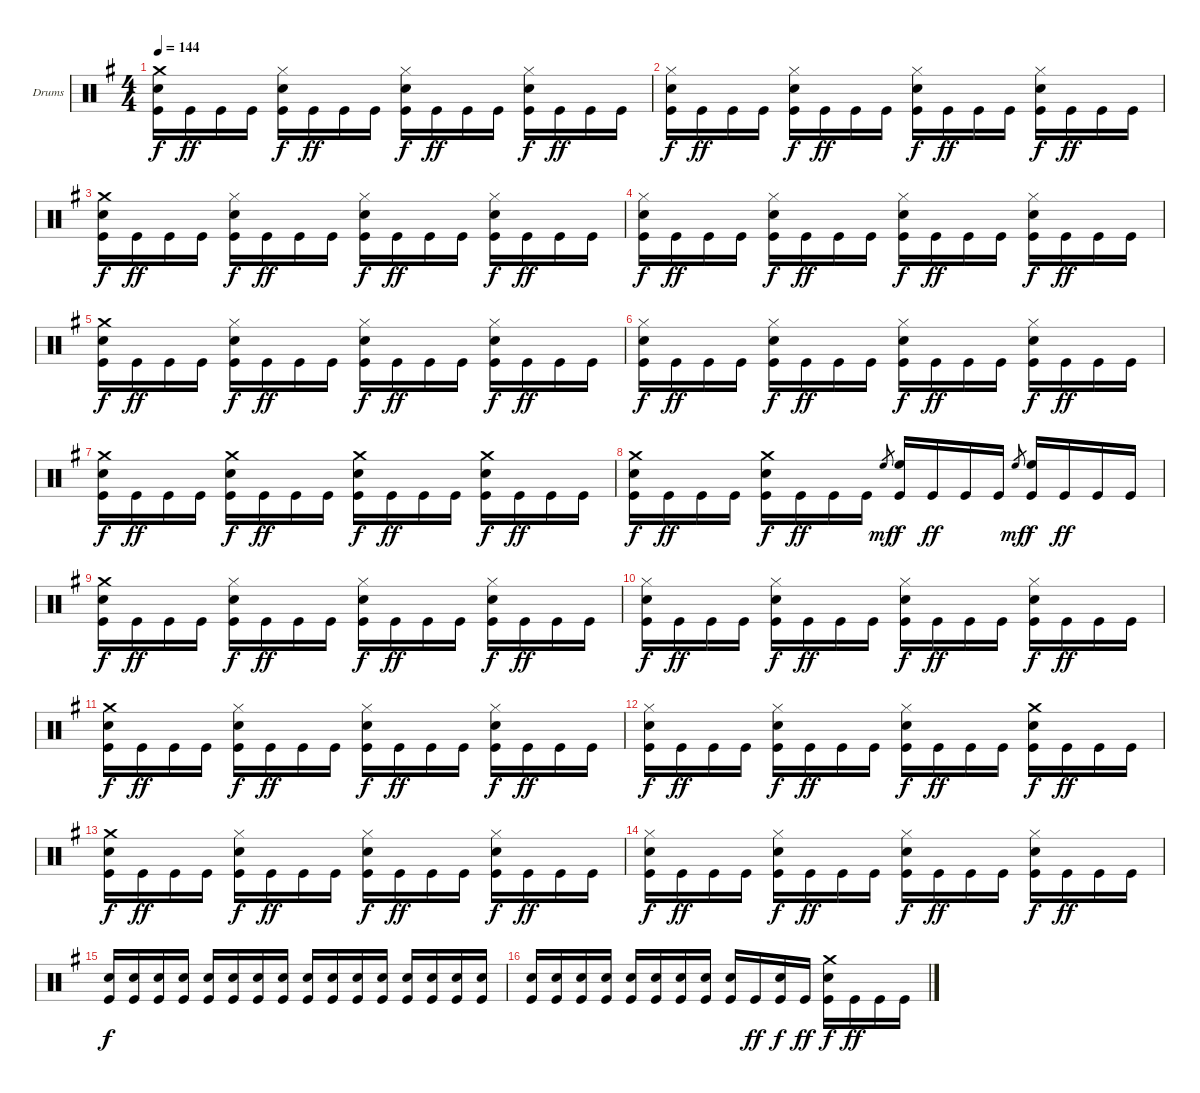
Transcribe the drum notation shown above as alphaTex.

\bracketExtendMode groupsimilarinstruments
\firstSystemTrackNameOrientation horizontal
\otherSystemsTrackNameOrientation horizontal
\track ("Drumkit" "Drums") {instrument percussion}
\staff {score}
\articulation defaults
\ts (4 4)
\tempo 144
\clef neutral
\ks g
("Crash medium (hit)" "Snare (hit) 2" "Kick (hit)").16{dy f} "Kick (hit)".16{dy ff} "Kick (hit)".16 "Kick (hit)".16 ("Hi-Hat (closed)" "Snare (hit) 2" "Kick (hit)").16{dy f} "Kick (hit)".16{dy ff} "Kick (hit)".16 "Kick (hit)".16 ("Hi-Hat (closed)" "Snare (hit) 2" "Kick (hit)").16{dy f} "Kick (hit)".16{dy ff} "Kick (hit)".16 "Kick (hit)".16 ("Hi-Hat (closed)" "Snare (hit) 2" "Kick (hit)").16{dy f} "Kick (hit)".16{dy ff} "Kick (hit)".16 "Kick (hit)".16 |
("Hi-Hat (closed)" "Snare (hit) 2" "Kick (hit)").16{dy f} "Kick (hit)".16{dy ff} "Kick (hit)".16 "Kick (hit)".16 ("Hi-Hat (closed)" "Snare (hit) 2" "Kick (hit)").16{dy f} "Kick (hit)".16{dy ff} "Kick (hit)".16 "Kick (hit)".16 ("Hi-Hat (closed)" "Snare (hit) 2" "Kick (hit)").16{dy f} "Kick (hit)".16{dy ff} "Kick (hit)".16 "Kick (hit)".16 ("Hi-Hat (closed)" "Snare (hit) 2" "Kick (hit)").16{dy f} "Kick (hit)".16{dy ff} "Kick (hit)".16 "Kick (hit)".16 |
("Crash medium (hit)" "Snare (hit) 2" "Kick (hit)").16{dy f} "Kick (hit)".16{dy ff} "Kick (hit)".16 "Kick (hit)".16 ("Hi-Hat (closed)" "Snare (hit) 2" "Kick (hit)").16{dy f} "Kick (hit)".16{dy ff} "Kick (hit)".16 "Kick (hit)".16 ("Hi-Hat (closed)" "Snare (hit) 2" "Kick (hit)").16{dy f} "Kick (hit)".16{dy ff} "Kick (hit)".16 "Kick (hit)".16 ("Hi-Hat (closed)" "Snare (hit) 2" "Kick (hit)").16{dy f} "Kick (hit)".16{dy ff} "Kick (hit)".16 "Kick (hit)".16 |
("Hi-Hat (closed)" "Snare (hit) 2" "Kick (hit)").16{dy f} "Kick (hit)".16{dy ff} "Kick (hit)".16 "Kick (hit)".16 ("Hi-Hat (closed)" "Snare (hit) 2" "Kick (hit)").16{dy f} "Kick (hit)".16{dy ff} "Kick (hit)".16 "Kick (hit)".16 ("Hi-Hat (closed)" "Snare (hit) 2" "Kick (hit)").16{dy f} "Kick (hit)".16{dy ff} "Kick (hit)".16 "Kick (hit)".16 ("Hi-Hat (closed)" "Snare (hit) 2" "Kick (hit)").16{dy f} "Kick (hit)".16{dy ff} "Kick (hit)".16 "Kick (hit)".16 |
("Crash medium (hit)" "Snare (hit) 2" "Kick (hit)").16{dy f} "Kick (hit)".16{dy ff} "Kick (hit)".16 "Kick (hit)".16 ("Hi-Hat (closed)" "Snare (hit) 2" "Kick (hit)").16{dy f} "Kick (hit)".16{dy ff} "Kick (hit)".16 "Kick (hit)".16 ("Hi-Hat (closed)" "Snare (hit) 2" "Kick (hit)").16{dy f} "Kick (hit)".16{dy ff} "Kick (hit)".16 "Kick (hit)".16 ("Hi-Hat (closed)" "Snare (hit) 2" "Kick (hit)").16{dy f} "Kick (hit)".16{dy ff} "Kick (hit)".16 "Kick (hit)".16 |
("Hi-Hat (closed)" "Snare (hit) 2" "Kick (hit)").16{dy f} "Kick (hit)".16{dy ff} "Kick (hit)".16 "Kick (hit)".16 ("Hi-Hat (closed)" "Snare (hit) 2" "Kick (hit)").16{dy f} "Kick (hit)".16{dy ff} "Kick (hit)".16 "Kick (hit)".16 ("Hi-Hat (closed)" "Snare (hit) 2" "Kick (hit)").16{dy f} "Kick (hit)".16{dy ff} "Kick (hit)".16 "Kick (hit)".16 ("Hi-Hat (closed)" "Snare (hit) 2" "Kick (hit)").16{dy f} "Kick (hit)".16{dy ff} "Kick (hit)".16 "Kick (hit)".16 |
("Crash medium (hit)" "Snare (hit) 2" "Kick (hit)").16{dy f} "Kick (hit)".16{dy ff} "Kick (hit)".16 "Kick (hit)".16 ("Crash medium (hit)" "Snare (hit) 2" "Kick (hit)").16{dy f} "Kick (hit)".16{dy ff} "Kick (hit)".16 "Kick (hit)".16 ("Crash medium (hit)" "Snare (hit) 2" "Kick (hit)").16{dy f} "Kick (hit)".16{dy ff} "Kick (hit)".16 "Kick (hit)".16 ("Crash medium (hit)" "Snare (hit) 2" "Kick (hit)").16{dy f} "Kick (hit)".16{dy ff} "Kick (hit)".16 "Kick (hit)".16 |
("Crash medium (hit)" "Snare (hit) 2" "Kick (hit)").16{dy f} "Kick (hit)".16{dy ff} "Kick (hit)".16 "Kick (hit)".16 ("Crash medium (hit)" "Snare (hit) 2" "Kick (hit)").16{dy f} "Kick (hit)".16{dy ff} "Kick (hit)".16 "Kick (hit)".16 "High Floor Tom (hit)".8{gr dy mf} ("High Floor Tom (hit)" "Kick (hit)").16{dy f} "Kick (hit)".16{dy ff} "Kick (hit)".16 "Kick (hit)".16 "High Floor Tom (hit)".8{gr dy mf} ("High Floor Tom (hit)" "Kick (hit)").16{dy f} "Kick (hit)".16{dy ff} "Kick (hit)".16 "Kick (hit)".16 |
("Crash medium (hit)" "Snare (hit) 2" "Kick (hit)").16{dy f} "Kick (hit)".16{dy ff} "Kick (hit)".16 "Kick (hit)".16 ("Hi-Hat (closed)" "Snare (hit) 2" "Kick (hit)").16{dy f} "Kick (hit)".16{dy ff} "Kick (hit)".16 "Kick (hit)".16 ("Hi-Hat (closed)" "Snare (hit) 2" "Kick (hit)").16{dy f} "Kick (hit)".16{dy ff} "Kick (hit)".16 "Kick (hit)".16 ("Hi-Hat (closed)" "Snare (hit) 2" "Kick (hit)").16{dy f} "Kick (hit)".16{dy ff} "Kick (hit)".16 "Kick (hit)".16 |
("Hi-Hat (closed)" "Snare (hit) 2" "Kick (hit)").16{dy f} "Kick (hit)".16{dy ff} "Kick (hit)".16 "Kick (hit)".16 ("Hi-Hat (closed)" "Snare (hit) 2" "Kick (hit)").16{dy f} "Kick (hit)".16{dy ff} "Kick (hit)".16 "Kick (hit)".16 ("Hi-Hat (closed)" "Snare (hit) 2" "Kick (hit)").16{dy f} "Kick (hit)".16{dy ff} "Kick (hit)".16 "Kick (hit)".16 ("Hi-Hat (closed)" "Snare (hit) 2" "Kick (hit)").16{dy f} "Kick (hit)".16{dy ff} "Kick (hit)".16 "Kick (hit)".16 |
("Crash medium (hit)" "Snare (hit) 2" "Kick (hit)").16{dy f} "Kick (hit)".16{dy ff} "Kick (hit)".16 "Kick (hit)".16 ("Hi-Hat (closed)" "Snare (hit) 2" "Kick (hit)").16{dy f} "Kick (hit)".16{dy ff} "Kick (hit)".16 "Kick (hit)".16 ("Hi-Hat (closed)" "Snare (hit) 2" "Kick (hit)").16{dy f} "Kick (hit)".16{dy ff} "Kick (hit)".16 "Kick (hit)".16 ("Hi-Hat (closed)" "Snare (hit) 2" "Kick (hit)").16{dy f} "Kick (hit)".16{dy ff} "Kick (hit)".16 "Kick (hit)".16 |
("Hi-Hat (closed)" "Snare (hit) 2" "Kick (hit)").16{dy f} "Kick (hit)".16{dy ff} "Kick (hit)".16 "Kick (hit)".16 ("Hi-Hat (closed)" "Snare (hit) 2" "Kick (hit)").16{dy f} "Kick (hit)".16{dy ff} "Kick (hit)".16 "Kick (hit)".16 ("Hi-Hat (closed)" "Snare (hit) 2" "Kick (hit)").16{dy f} "Kick (hit)".16{dy ff} "Kick (hit)".16 "Kick (hit)".16 ("Crash medium (hit)" "Snare (hit) 2" "Kick (hit)").16{dy f} "Kick (hit)".16{dy ff} "Kick (hit)".16 "Kick (hit)".16 |
("Crash medium (hit)" "Snare (hit) 2" "Kick (hit)").16{dy f} "Kick (hit)".16{dy ff} "Kick (hit)".16 "Kick (hit)".16 ("Hi-Hat (closed)" "Snare (hit) 2" "Kick (hit)").16{dy f} "Kick (hit)".16{dy ff} "Kick (hit)".16 "Kick (hit)".16 ("Hi-Hat (closed)" "Snare (hit) 2" "Kick (hit)").16{dy f} "Kick (hit)".16{dy ff} "Kick (hit)".16 "Kick (hit)".16 ("Hi-Hat (closed)" "Snare (hit) 2" "Kick (hit)").16{dy f} "Kick (hit)".16{dy ff} "Kick (hit)".16 "Kick (hit)".16 |
("Hi-Hat (closed)" "Snare (hit) 2" "Kick (hit)").16{dy f} "Kick (hit)".16{dy ff} "Kick (hit)".16 "Kick (hit)".16 ("Hi-Hat (closed)" "Snare (hit) 2" "Kick (hit)").16{dy f} "Kick (hit)".16{dy ff} "Kick (hit)".16 "Kick (hit)".16 ("Hi-Hat (closed)" "Snare (hit) 2" "Kick (hit)").16{dy f} "Kick (hit)".16{dy ff} "Kick (hit)".16 "Kick (hit)".16 ("Hi-Hat (closed)" "Snare (hit) 2" "Kick (hit)").16{dy f} "Kick (hit)".16{dy ff} "Kick (hit)".16 "Kick (hit)".16 |
("Snare (hit) 2" "Kick (hit)").16{dy f} ("Snare (hit) 2" "Kick (hit)").16 ("Snare (hit) 2" "Kick (hit)").16 ("Snare (hit) 2" "Kick (hit)").16 ("Snare (hit) 2" "Kick (hit)").16 ("Snare (hit) 2" "Kick (hit)").16 ("Snare (hit) 2" "Kick (hit)").16 ("Snare (hit) 2" "Kick (hit)").16 ("Snare (hit) 2" "Kick (hit)").16 ("Snare (hit) 2" "Kick (hit)").16 ("Snare (hit) 2" "Kick (hit)").16 ("Snare (hit) 2" "Kick (hit)").16 ("Snare (hit) 2" "Kick (hit)").16 ("Snare (hit) 2" "Kick (hit)").16 ("Snare (hit) 2" "Kick (hit)").16 ("Snare (hit) 2" "Kick (hit)").16 |
("Snare (hit) 2" "Kick (hit)").16 ("Snare (hit) 2" "Kick (hit)").16 ("Snare (hit) 2" "Kick (hit)").16 ("Snare (hit) 2" "Kick (hit)").16 ("Snare (hit) 2" "Kick (hit)").16 ("Snare (hit) 2" "Kick (hit)").16 ("Snare (hit) 2" "Kick (hit)").16 ("Snare (hit) 2" "Kick (hit)").16 ("Snare (hit) 2" "Kick (hit)").16 "Kick (hit)".16{dy ff} ("Snare (hit) 2" "Kick (hit)").16{dy f} "Kick (hit)".16{dy ff} ("Crash medium (hit)" "Snare (hit) 2" "Kick (hit)").16{dy f} "Kick (hit)".16{dy ff} "Kick (hit)".16 "Kick (hit)".16
